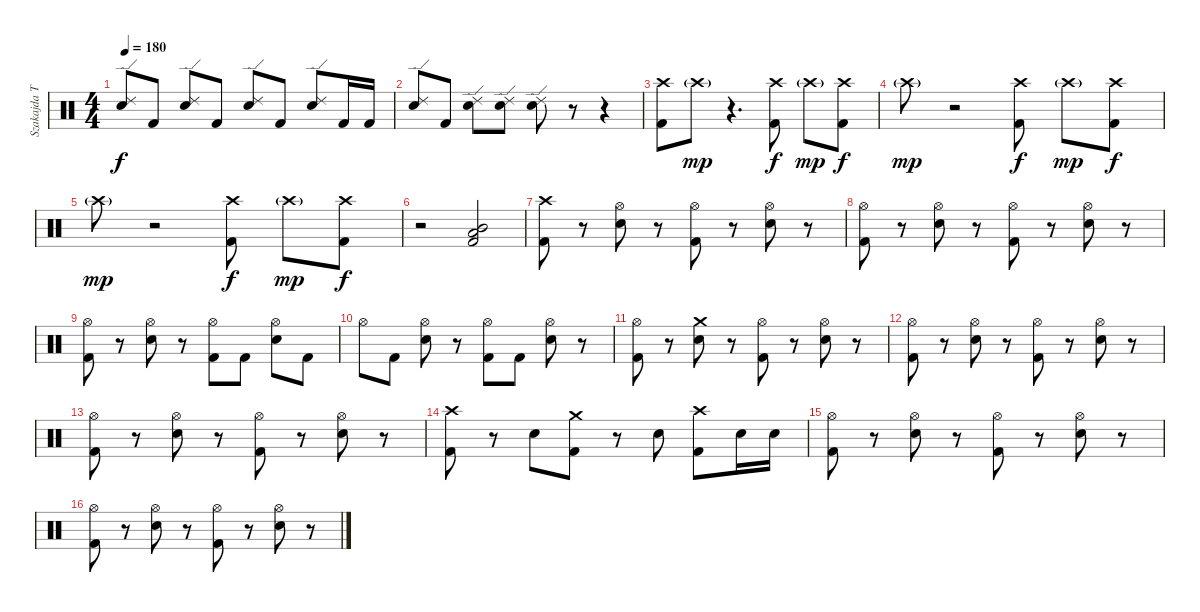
\track ("Szakajda Tibi" "Szakajda T") {instrument percussion}
\staff {score}
\articulation defaults
\ts (4 4)
\tempo 180
\clef neutral
\ks c
("Ride (edge) 2" "Electric Snare (hit)").8{dy f} "Kick (hit) 2".8 ("Ride (edge) 2" "Electric Snare (hit)").8 "Kick (hit) 2".8 ("Ride (edge) 2" "Electric Snare (hit)").8 "Kick (hit) 2".8 ("Ride (edge) 2" "Electric Snare (hit)").8 "Kick (hit) 2".16 "Kick (hit) 2".16 |
("Ride (edge) 2" "Electric Snare (hit)").8 "Kick (hit) 2".8 ("Ride (edge) 2" "Electric Snare (hit)").8 ("Ride (edge) 2" "Electric Snare (hit)").8 ("Ride (edge) 2" "Electric Snare (hit)").8 r.8 r.4 |
("Crash high (hit)" "Kick (hit) 2").8 "Crash high (hit)"{g}.8{dy mp} r.4{d} ("Crash high (hit)" "Kick (hit) 2").8{dy f} "Crash high (hit)"{g}.8{dy mp} ("Crash high (hit)" "Kick (hit) 2").8{dy f} |
"Crash high (hit)"{g}.8{dy mp} r.2 ("Crash high (hit)" "Kick (hit) 2").8{dy f} "Crash high (hit)"{g}.8{dy mp} ("Crash high (hit)" "Kick (hit) 2").8{dy f} |
"Crash high (hit)"{g}.8{dy mp} r.2 ("Crash high (hit)" "Kick (hit) 2").8{dy f} "Crash high (hit)"{g}.8{dy mp} ("Crash high (hit)" "Kick (hit) 2").8{dy f} |
r.2 ("Mid Tom (hit)" "Low Floor Tom (hit)" "Kick (hit) 2").2 |
("Crash high (hit)" "Kick (hit) 2").8 r.8 ("Hi-Hat (open)" "Electric Snare (hit)").8 r.8 ("Hi-Hat (open)" "Kick (hit) 2").8 r.8 ("Hi-Hat (open)" "Electric Snare (hit)").8 r.8 |
("Hi-Hat (open)" "Kick (hit) 2").8 r.8 ("Hi-Hat (open)" "Electric Snare (hit)").8 r.8 ("Hi-Hat (open)" "Kick (hit) 2").8 r.8 ("Hi-Hat (open)" "Electric Snare (hit)").8 r.8 |
("Hi-Hat (open)" "Kick (hit) 2").8 r.8 ("Hi-Hat (open)" "Electric Snare (hit)").8 r.8 ("Hi-Hat (open)" "Kick (hit) 2").8 "Kick (hit) 2".8 ("Hi-Hat (open)" "Electric Snare (hit)").8 "Kick (hit) 2".8 |
"Hi-Hat (open)".8 "Kick (hit) 2".8 ("Hi-Hat (open)" "Electric Snare (hit)").8 r.8 ("Hi-Hat (open)" "Kick (hit) 2").8 "Kick (hit) 2".8 ("Hi-Hat (open)" "Electric Snare (hit)").8 r.8 |
("Hi-Hat (open)" "Kick (hit) 2").8 r.8 ("Crash medium (hit)" "Electric Snare (hit)").8 r.8 ("Hi-Hat (open)" "Kick (hit) 2").8 r.8 ("Hi-Hat (open)" "Electric Snare (hit)").8 r.8 |
("Hi-Hat (open)" "Kick (hit) 2").8 r.8 ("Hi-Hat (open)" "Electric Snare (hit)").8 r.8 ("Hi-Hat (open)" "Kick (hit) 2").8 r.8 ("Hi-Hat (open)" "Electric Snare (hit)").8 r.8 |
("Hi-Hat (open)" "Kick (hit) 2").8 r.8 ("Hi-Hat (open)" "Electric Snare (hit)").8 r.8 ("Hi-Hat (open)" "Kick (hit) 2").8 r.8 ("Hi-Hat (open)" "Electric Snare (hit)").8 r.8 |
("Crash high (hit)" "Kick (hit) 2").8 r.8 "Electric Snare (hit)".8 ("Crash medium (hit)" "Kick (hit) 2").8 r.8 "Electric Snare (hit)".8 ("Crash high (hit)" "Kick (hit) 2").8 "Electric Snare (hit)".16 "Electric Snare (hit)".16 |
("Hi-Hat (open)" "Kick (hit) 2").8 r.8 ("Hi-Hat (open)" "Electric Snare (hit)").8 r.8 ("Hi-Hat (open)" "Kick (hit) 2").8 r.8 ("Hi-Hat (open)" "Electric Snare (hit)").8 r.8 |
("Hi-Hat (open)" "Kick (hit) 2").8 r.8 ("Hi-Hat (open)" "Electric Snare (hit)").8 r.8 ("Hi-Hat (open)" "Kick (hit) 2").8 r.8 ("Hi-Hat (open)" "Electric Snare (hit)").8 r.8
